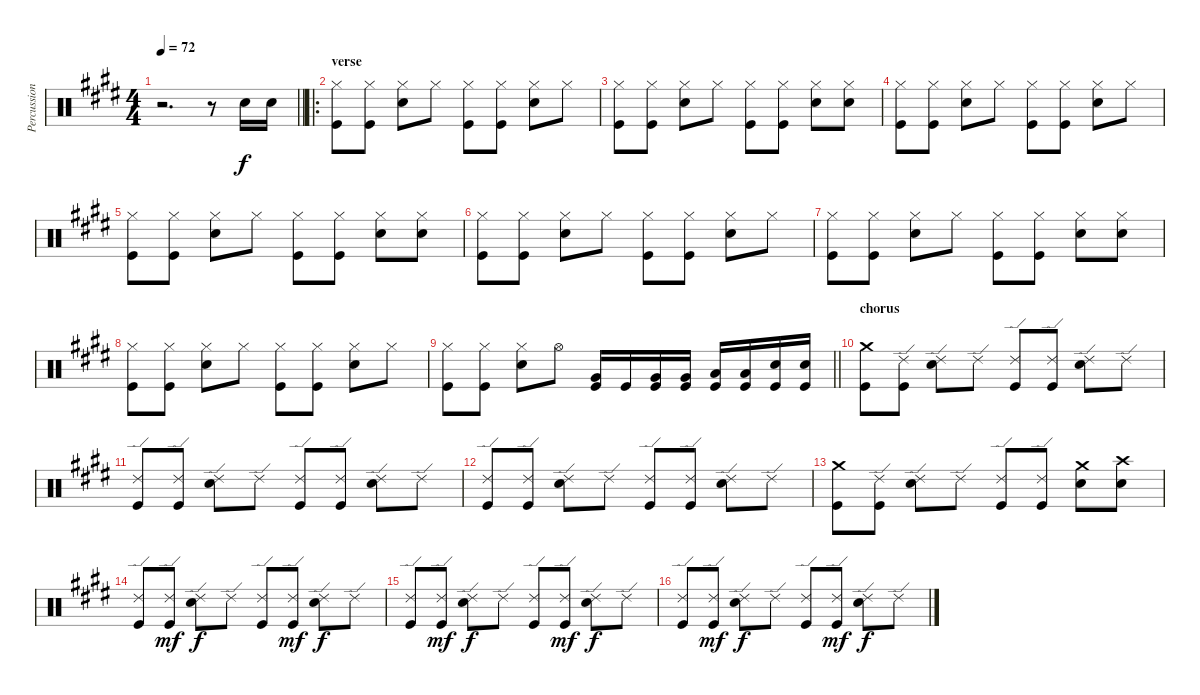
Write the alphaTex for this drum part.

\track ("Percussion" "Percussion") {instrument percussion}
\staff {score}
\articulation defaults
\ts (4 4)
\tempo 72
\clef neutral
\barLineRight lightlight
\ks e
r.2{d dy f volume 4} r.8 "Snare (hit) 2".16 "Snare (hit) 2".16 |
\ro
\section ("" "verse")
("Hi-Hat (closed)" "Kick (hit)").8{volume 4} ("Hi-Hat (closed)" "Kick (hit)").8 ("Hi-Hat (closed)" "Snare (hit) 2").8 "Hi-Hat (closed)".8 ("Hi-Hat (closed)" "Kick (hit)").8 ("Hi-Hat (closed)" "Kick (hit)").8 ("Hi-Hat (closed)" "Snare (hit) 2").8 "Hi-Hat (closed)".8 |
("Hi-Hat (closed)" "Kick (hit)").8 ("Hi-Hat (closed)" "Kick (hit)").8 ("Hi-Hat (closed)" "Snare (hit) 2").8 "Hi-Hat (closed)".8 ("Hi-Hat (closed)" "Kick (hit)").8 ("Hi-Hat (closed)" "Kick (hit)").8 ("Hi-Hat (closed)" "Snare (hit) 2").8 ("Hi-Hat (closed)" "Snare (hit) 2").8 |
("Hi-Hat (closed)" "Kick (hit)").8 ("Hi-Hat (closed)" "Kick (hit)").8 ("Hi-Hat (closed)" "Snare (hit) 2").8 "Hi-Hat (closed)".8 ("Hi-Hat (closed)" "Kick (hit)").8 ("Hi-Hat (closed)" "Kick (hit)").8 ("Hi-Hat (closed)" "Snare (hit) 2").8 "Hi-Hat (closed)".8 |
("Hi-Hat (closed)" "Kick (hit)").8 ("Hi-Hat (closed)" "Kick (hit)").8 ("Hi-Hat (closed)" "Snare (hit) 2").8 "Hi-Hat (closed)".8 ("Hi-Hat (closed)" "Kick (hit)").8 ("Hi-Hat (closed)" "Kick (hit)").8 ("Hi-Hat (closed)" "Snare (hit) 2").8 ("Hi-Hat (closed)" "Snare (hit) 2").8 |
("Hi-Hat (closed)" "Kick (hit)").8 ("Hi-Hat (closed)" "Kick (hit)").8 ("Hi-Hat (closed)" "Snare (hit) 2").8 "Hi-Hat (closed)".8 ("Hi-Hat (closed)" "Kick (hit)").8 ("Hi-Hat (closed)" "Kick (hit)").8 ("Hi-Hat (closed)" "Snare (hit) 2").8 "Hi-Hat (closed)".8 |
("Hi-Hat (closed)" "Kick (hit)").8 ("Hi-Hat (closed)" "Kick (hit)").8 ("Hi-Hat (closed)" "Snare (hit) 2").8 "Hi-Hat (closed)".8 ("Hi-Hat (closed)" "Kick (hit)").8 ("Hi-Hat (closed)" "Kick (hit)").8 ("Hi-Hat (closed)" "Snare (hit) 2").8 ("Hi-Hat (closed)" "Snare (hit) 2").8 |
("Hi-Hat (closed)" "Kick (hit)").8 ("Hi-Hat (closed)" "Kick (hit)").8 ("Hi-Hat (closed)" "Snare (hit) 2").8 "Hi-Hat (closed)".8 ("Hi-Hat (closed)" "Kick (hit)").8 ("Hi-Hat (closed)" "Kick (hit)").8 ("Hi-Hat (closed)" "Snare (hit) 2").8 "Hi-Hat (closed)".8 |
\barLineRight lightlight
("Hi-Hat (closed)" "Kick (hit)").8 ("Hi-Hat (closed)" "Kick (hit)").8 ("Hi-Hat (closed)" "Snare (hit) 2").8 "Hi-Hat (open)".8 ("Very Low Tom (hit)" "Kick (hit)").16{volume 12} "Kick (hit)".16 ("Very Low Tom (hit)" "Kick (hit)").16 ("Very Low Tom (hit)" "Kick (hit)").16 ("Low Tom (hit)" "Kick (hit)").16 ("Low Tom (hit)" "Kick (hit)").16 ("Snare (hit) 2" "Kick (hit)").16 ("Snare (hit) 2" "Kick (hit)").16 |
\section ("" "chorus")
("Crash medium (hit)" "Kick (hit)").8 ("Ride (edge) 2" "Kick (hit)").8 ("Ride (edge) 2" "Snare (hit) 2").8 "Ride (edge) 2".8 ("Ride (edge) 2" "Kick (hit)").8 ("Ride (edge) 2" "Kick (hit)").8 ("Ride (edge) 2" "Snare (hit) 2").8 "Ride (edge) 2".8 |
("Ride (edge) 2" "Kick (hit)").8 ("Ride (edge) 2" "Kick (hit)").8 ("Ride (edge) 2" "Snare (hit) 2").8 "Ride (edge) 2".8 ("Ride (edge) 2" "Kick (hit)").8 ("Ride (edge) 2" "Kick (hit)").8 ("Ride (edge) 2" "Snare (hit) 2").8 "Ride (edge) 2".8 |
("Ride (edge) 2" "Kick (hit)").8 ("Ride (edge) 2" "Kick (hit)").8 ("Ride (edge) 2" "Snare (hit) 2").8 "Ride (edge) 2".8 ("Ride (edge) 2" "Kick (hit)").8 ("Ride (edge) 2" "Kick (hit)").8 ("Ride (edge) 2" "Snare (hit) 2").8 "Ride (edge) 2".8 |
("Crash medium (hit)" "Kick (hit)").8 ("Ride (edge) 2" "Kick (hit)").8 ("Ride (edge) 2" "Snare (hit) 2").8 "Ride (edge) 2".8 ("Ride (edge) 2" "Kick (hit)").8 ("Ride (edge) 2" "Kick (hit)").8 ("Crash medium (hit)" "Snare (hit) 2").8 ("Crash high (hit)" "Snare (hit) 2").8 |
("Ride (edge) 2" "Kick (hit)").8 ("Ride (edge) 2" "Kick (hit)").8{dy mf} ("Ride (edge) 2" "Snare (hit) 2").8{dy f} "Ride (edge) 2".8 ("Ride (edge) 2" "Kick (hit)").8 ("Ride (edge) 2" "Kick (hit)").8{dy mf} ("Ride (edge) 2" "Snare (hit) 2").8{dy f} "Ride (edge) 2".8 |
("Ride (edge) 2" "Kick (hit)").8 ("Ride (edge) 2" "Kick (hit)").8{dy mf} ("Ride (edge) 2" "Snare (hit) 2").8{dy f} "Ride (edge) 2".8 ("Ride (edge) 2" "Kick (hit)").8 ("Ride (edge) 2" "Kick (hit)").8{dy mf} ("Ride (edge) 2" "Snare (hit) 2").8{dy f} "Ride (edge) 2".8 |
("Ride (edge) 2" "Kick (hit)").8 ("Ride (edge) 2" "Kick (hit)").8{dy mf} ("Ride (edge) 2" "Snare (hit) 2").8{dy f} "Ride (edge) 2".8 ("Ride (edge) 2" "Kick (hit)").8 ("Ride (edge) 2" "Kick (hit)").8{dy mf} ("Ride (edge) 2" "Snare (hit) 2").8{dy f} "Ride (edge) 2".8
